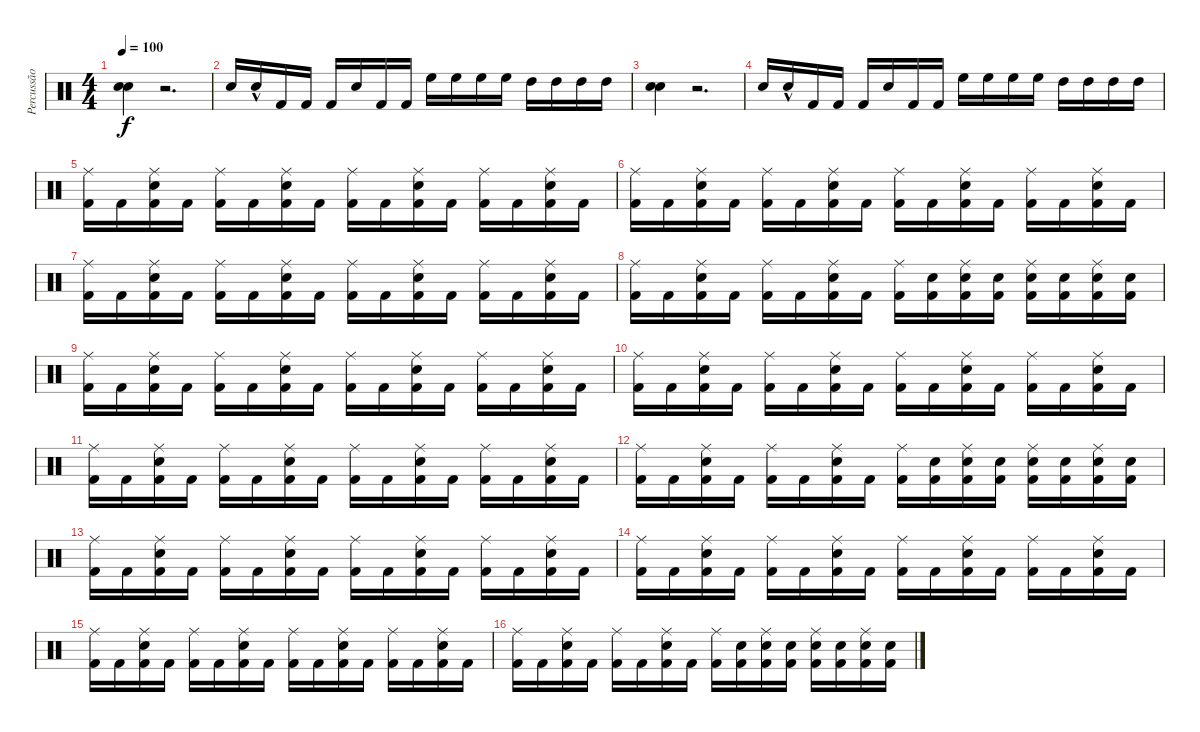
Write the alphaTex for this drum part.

\track ("Percussão" "Percussão") {instrument percussion}
\staff {score}
\articulation defaults
\ts (4 4)
\tempo 100
\clef neutral
\ks c
("Snare (hit) 2" "Snare (hit) 2").4{dy f} r.2{d} |
"Snare (hit) 2".16 "Snare (hit) 2"{hac}.16 "Kick (hit) 2".16 "Kick (hit) 2".16 "Kick (hit) 2".16 "Snare (hit) 2".16 "Kick (hit) 2".16 "Kick (hit) 2".16 "High Floor Tom (hit)".16 "High Floor Tom (hit)".16 "High Floor Tom (hit)".16 "High Floor Tom (hit)".16 "High Tom (hit)".16 "High Tom (hit)".16 "High Tom (hit)".16 "High Tom (hit)".16 |
("Snare (hit) 2" "Snare (hit) 2").4 r.2{d} |
"Snare (hit) 2".16 "Snare (hit) 2"{hac}.16 "Kick (hit) 2".16 "Kick (hit) 2".16 "Kick (hit) 2".16 "Snare (hit) 2".16 "Kick (hit) 2".16 "Kick (hit) 2".16 "High Floor Tom (hit)".16 "High Floor Tom (hit)".16 "High Floor Tom (hit)".16 "High Floor Tom (hit)".16 "High Tom (hit)".16 "High Tom (hit)".16 "High Tom (hit)".16 "High Tom (hit)".16 |
("Ride (middle)" "Kick (hit) 2").16 "Kick (hit) 2".16 ("Ride (middle)" "Snare (hit) 2" "Kick (hit) 2").16 "Kick (hit) 2".16 ("Ride (middle)" "Kick (hit) 2").16 "Kick (hit) 2".16 ("Ride (middle)" "Snare (hit) 2" "Kick (hit) 2").16 "Kick (hit) 2".16 ("Ride (middle)" "Kick (hit) 2").16 "Kick (hit) 2".16 ("Ride (middle)" "Snare (hit) 2" "Kick (hit) 2").16 "Kick (hit) 2".16 ("Ride (middle)" "Kick (hit) 2").16 "Kick (hit) 2".16 ("Ride (middle)" "Snare (hit) 2" "Kick (hit) 2").16 "Kick (hit) 2".16 |
("Ride (middle)" "Kick (hit) 2").16 "Kick (hit) 2".16 ("Ride (middle)" "Snare (hit) 2" "Kick (hit) 2").16 "Kick (hit) 2".16 ("Ride (middle)" "Kick (hit) 2").16 "Kick (hit) 2".16 ("Ride (middle)" "Snare (hit) 2" "Kick (hit) 2").16 "Kick (hit) 2".16 ("Ride (middle)" "Kick (hit) 2").16 "Kick (hit) 2".16 ("Ride (middle)" "Snare (hit) 2" "Kick (hit) 2").16 "Kick (hit) 2".16 ("Ride (middle)" "Kick (hit) 2").16 "Kick (hit) 2".16 ("Ride (middle)" "Snare (hit) 2" "Kick (hit) 2").16 "Kick (hit) 2".16 |
("Ride (middle)" "Kick (hit) 2").16 "Kick (hit) 2".16 ("Ride (middle)" "Snare (hit) 2" "Kick (hit) 2").16 "Kick (hit) 2".16 ("Ride (middle)" "Kick (hit) 2").16 "Kick (hit) 2".16 ("Ride (middle)" "Snare (hit) 2" "Kick (hit) 2").16 "Kick (hit) 2".16 ("Ride (middle)" "Kick (hit) 2").16 "Kick (hit) 2".16 ("Ride (middle)" "Snare (hit) 2" "Kick (hit) 2").16 "Kick (hit) 2".16 ("Ride (middle)" "Kick (hit) 2").16 "Kick (hit) 2".16 ("Ride (middle)" "Snare (hit) 2" "Kick (hit) 2").16 "Kick (hit) 2".16 |
("Ride (middle)" "Kick (hit) 2").16 "Kick (hit) 2".16 ("Ride (middle)" "Snare (hit) 2" "Kick (hit) 2").16 "Kick (hit) 2".16 ("Ride (middle)" "Kick (hit) 2").16 "Kick (hit) 2".16 ("Ride (middle)" "Snare (hit) 2" "Kick (hit) 2").16 "Kick (hit) 2".16 ("Ride (middle)" "Kick (hit) 2").16 ("Snare (hit) 2" "Kick (hit) 2").16 ("Ride (middle)" "Snare (hit) 2" "Kick (hit) 2").16 ("Snare (hit) 2" "Kick (hit) 2").16 ("Ride (middle)" "Snare (hit) 2" "Kick (hit) 2").16 ("Snare (hit) 2" "Kick (hit) 2").16 ("Ride (middle)" "Snare (hit) 2" "Kick (hit) 2").16 ("Snare (hit) 2" "Kick (hit) 2").16 |
("Ride (middle)" "Kick (hit) 2").16 "Kick (hit) 2".16 ("Ride (middle)" "Snare (hit) 2" "Kick (hit) 2").16 "Kick (hit) 2".16 ("Ride (middle)" "Kick (hit) 2").16 "Kick (hit) 2".16 ("Ride (middle)" "Snare (hit) 2" "Kick (hit) 2").16 "Kick (hit) 2".16 ("Ride (middle)" "Kick (hit) 2").16 "Kick (hit) 2".16 ("Ride (middle)" "Snare (hit) 2" "Kick (hit) 2").16 "Kick (hit) 2".16 ("Ride (middle)" "Kick (hit) 2").16 "Kick (hit) 2".16 ("Ride (middle)" "Snare (hit) 2" "Kick (hit) 2").16 "Kick (hit) 2".16 |
("Ride (middle)" "Kick (hit) 2").16 "Kick (hit) 2".16 ("Ride (middle)" "Snare (hit) 2" "Kick (hit) 2").16 "Kick (hit) 2".16 ("Ride (middle)" "Kick (hit) 2").16 "Kick (hit) 2".16 ("Ride (middle)" "Snare (hit) 2" "Kick (hit) 2").16 "Kick (hit) 2".16 ("Ride (middle)" "Kick (hit) 2").16 "Kick (hit) 2".16 ("Ride (middle)" "Snare (hit) 2" "Kick (hit) 2").16 "Kick (hit) 2".16 ("Ride (middle)" "Kick (hit) 2").16 "Kick (hit) 2".16 ("Ride (middle)" "Snare (hit) 2" "Kick (hit) 2").16 "Kick (hit) 2".16 |
("Ride (middle)" "Kick (hit) 2").16 "Kick (hit) 2".16 ("Ride (middle)" "Snare (hit) 2" "Kick (hit) 2").16 "Kick (hit) 2".16 ("Ride (middle)" "Kick (hit) 2").16 "Kick (hit) 2".16 ("Ride (middle)" "Snare (hit) 2" "Kick (hit) 2").16 "Kick (hit) 2".16 ("Ride (middle)" "Kick (hit) 2").16 "Kick (hit) 2".16 ("Ride (middle)" "Snare (hit) 2" "Kick (hit) 2").16 "Kick (hit) 2".16 ("Ride (middle)" "Kick (hit) 2").16 "Kick (hit) 2".16 ("Ride (middle)" "Snare (hit) 2" "Kick (hit) 2").16 "Kick (hit) 2".16 |
("Ride (middle)" "Kick (hit) 2").16 "Kick (hit) 2".16 ("Ride (middle)" "Snare (hit) 2" "Kick (hit) 2").16 "Kick (hit) 2".16 ("Ride (middle)" "Kick (hit) 2").16 "Kick (hit) 2".16 ("Ride (middle)" "Snare (hit) 2" "Kick (hit) 2").16 "Kick (hit) 2".16 ("Ride (middle)" "Kick (hit) 2").16 ("Snare (hit) 2" "Kick (hit) 2").16 ("Ride (middle)" "Snare (hit) 2" "Kick (hit) 2").16 ("Snare (hit) 2" "Kick (hit) 2").16 ("Ride (middle)" "Snare (hit) 2" "Kick (hit) 2").16 ("Snare (hit) 2" "Kick (hit) 2").16 ("Ride (middle)" "Snare (hit) 2" "Kick (hit) 2").16 ("Snare (hit) 2" "Kick (hit) 2").16 |
("Ride (middle)" "Kick (hit) 2").16 "Kick (hit) 2".16 ("Ride (middle)" "Snare (hit) 2" "Kick (hit) 2").16 "Kick (hit) 2".16 ("Ride (middle)" "Kick (hit) 2").16 "Kick (hit) 2".16 ("Ride (middle)" "Snare (hit) 2" "Kick (hit) 2").16 "Kick (hit) 2".16 ("Ride (middle)" "Kick (hit) 2").16 "Kick (hit) 2".16 ("Ride (middle)" "Snare (hit) 2" "Kick (hit) 2").16 "Kick (hit) 2".16 ("Ride (middle)" "Kick (hit) 2").16 "Kick (hit) 2".16 ("Ride (middle)" "Snare (hit) 2" "Kick (hit) 2").16 "Kick (hit) 2".16 |
("Ride (middle)" "Kick (hit) 2").16 "Kick (hit) 2".16 ("Ride (middle)" "Snare (hit) 2" "Kick (hit) 2").16 "Kick (hit) 2".16 ("Ride (middle)" "Kick (hit) 2").16 "Kick (hit) 2".16 ("Ride (middle)" "Snare (hit) 2" "Kick (hit) 2").16 "Kick (hit) 2".16 ("Ride (middle)" "Kick (hit) 2").16 "Kick (hit) 2".16 ("Ride (middle)" "Snare (hit) 2" "Kick (hit) 2").16 "Kick (hit) 2".16 ("Ride (middle)" "Kick (hit) 2").16 "Kick (hit) 2".16 ("Ride (middle)" "Snare (hit) 2" "Kick (hit) 2").16 "Kick (hit) 2".16 |
("Ride (middle)" "Kick (hit) 2").16 "Kick (hit) 2".16 ("Ride (middle)" "Snare (hit) 2" "Kick (hit) 2").16 "Kick (hit) 2".16 ("Ride (middle)" "Kick (hit) 2").16 "Kick (hit) 2".16 ("Ride (middle)" "Snare (hit) 2" "Kick (hit) 2").16 "Kick (hit) 2".16 ("Ride (middle)" "Kick (hit) 2").16 "Kick (hit) 2".16 ("Ride (middle)" "Snare (hit) 2" "Kick (hit) 2").16 "Kick (hit) 2".16 ("Ride (middle)" "Kick (hit) 2").16 "Kick (hit) 2".16 ("Ride (middle)" "Snare (hit) 2" "Kick (hit) 2").16 "Kick (hit) 2".16 |
("Ride (middle)" "Kick (hit) 2").16 "Kick (hit) 2".16 ("Ride (middle)" "Snare (hit) 2" "Kick (hit) 2").16 "Kick (hit) 2".16 ("Ride (middle)" "Kick (hit) 2").16 "Kick (hit) 2".16 ("Ride (middle)" "Snare (hit) 2" "Kick (hit) 2").16 "Kick (hit) 2".16 ("Ride (middle)" "Kick (hit) 2").16 ("Snare (hit) 2" "Kick (hit) 2").16 ("Ride (middle)" "Snare (hit) 2" "Kick (hit) 2").16 ("Snare (hit) 2" "Kick (hit) 2").16 ("Ride (middle)" "Snare (hit) 2" "Kick (hit) 2").16 ("Snare (hit) 2" "Kick (hit) 2").16 ("Ride (middle)" "Snare (hit) 2" "Kick (hit) 2").16 ("Snare (hit) 2" "Kick (hit) 2").16
